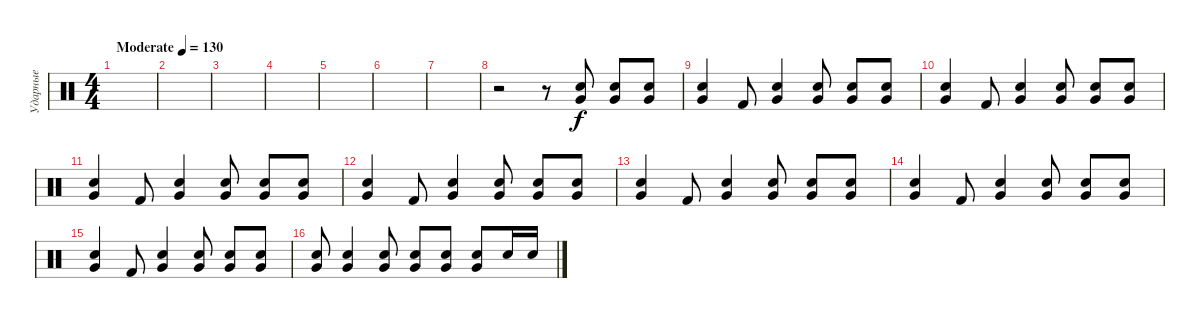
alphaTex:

\track ("Ударные" "Ударные") {instrument percussion}
\staff {score}
\articulation defaults
\ts (4 4)
\tempo (130 "Moderate")
\clef neutral
\ks c
|
|
|
|
|
|
|
r.2 r.8 ("Snare (hit) 2" "Very Low Tom (hit)").8 ("Snare (hit) 2" "Very Low Tom (hit)").8 ("Snare (hit) 2" "Very Low Tom (hit)").8 |
("Snare (hit) 2" "Very Low Tom (hit)").4 "Kick (hit) 2".8 ("Snare (hit) 2" "Very Low Tom (hit)").4 ("Snare (hit) 2" "Very Low Tom (hit)").8 ("Snare (hit) 2" "Very Low Tom (hit)").8 ("Snare (hit) 2" "Very Low Tom (hit)").8 |
("Snare (hit) 2" "Very Low Tom (hit)").4 "Kick (hit) 2".8 ("Snare (hit) 2" "Very Low Tom (hit)").4 ("Snare (hit) 2" "Very Low Tom (hit)").8 ("Snare (hit) 2" "Very Low Tom (hit)").8 ("Snare (hit) 2" "Very Low Tom (hit)").8 |
("Snare (hit) 2" "Very Low Tom (hit)").4 "Kick (hit) 2".8 ("Snare (hit) 2" "Very Low Tom (hit)").4 ("Snare (hit) 2" "Very Low Tom (hit)").8 ("Snare (hit) 2" "Very Low Tom (hit)").8 ("Snare (hit) 2" "Very Low Tom (hit)").8 |
("Snare (hit) 2" "Very Low Tom (hit)").4 "Kick (hit) 2".8 ("Snare (hit) 2" "Very Low Tom (hit)").4 ("Snare (hit) 2" "Very Low Tom (hit)").8 ("Snare (hit) 2" "Very Low Tom (hit)").8 ("Snare (hit) 2" "Very Low Tom (hit)").8 |
("Snare (hit) 2" "Very Low Tom (hit)").4 "Kick (hit) 2".8 ("Snare (hit) 2" "Very Low Tom (hit)").4 ("Snare (hit) 2" "Very Low Tom (hit)").8 ("Snare (hit) 2" "Very Low Tom (hit)").8 ("Snare (hit) 2" "Very Low Tom (hit)").8 |
("Snare (hit) 2" "Very Low Tom (hit)").4 "Kick (hit) 2".8 ("Snare (hit) 2" "Very Low Tom (hit)").4 ("Snare (hit) 2" "Very Low Tom (hit)").8 ("Snare (hit) 2" "Very Low Tom (hit)").8 ("Snare (hit) 2" "Very Low Tom (hit)").8 |
("Snare (hit) 2" "Very Low Tom (hit)").4 "Kick (hit) 2".8 ("Snare (hit) 2" "Very Low Tom (hit)").4 ("Snare (hit) 2" "Very Low Tom (hit)").8 ("Snare (hit) 2" "Very Low Tom (hit)").8 ("Snare (hit) 2" "Very Low Tom (hit)").8 |
("Snare (hit) 2" "Very Low Tom (hit)").8 ("Snare (hit) 2" "Very Low Tom (hit)").4 ("Snare (hit) 2" "Very Low Tom (hit)").8 ("Snare (hit) 2" "Very Low Tom (hit)").8 ("Snare (hit) 2" "Very Low Tom (hit)").8 ("Snare (hit) 2" "Very Low Tom (hit)").8 "Snare (hit) 2".16 "Snare (hit) 2".16
